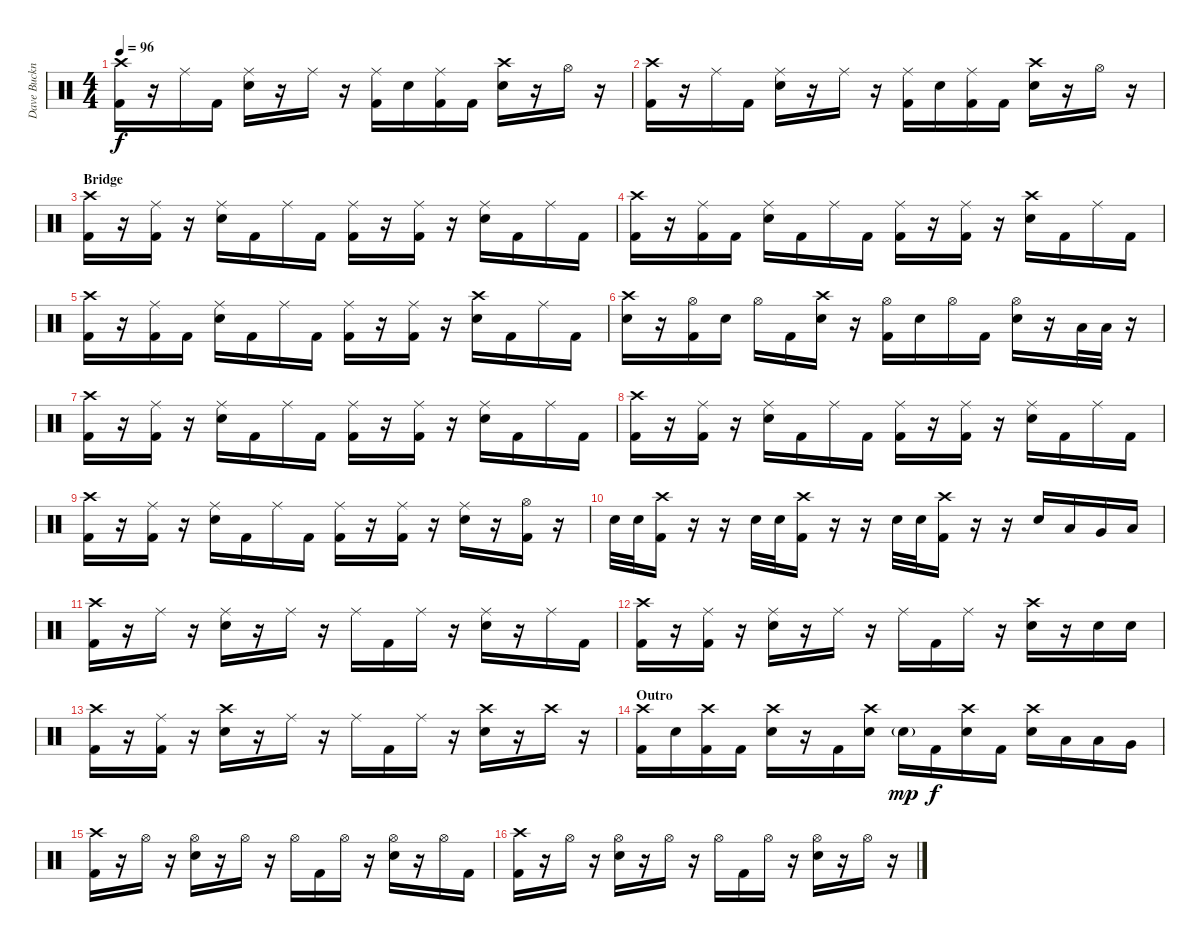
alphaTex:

\track ("Dave Buckner" "Dave Buckn") {instrument percussion}
\staff {score}
\articulation defaults
\ts (4 4)
\tempo 96
\clef neutral
\ks c
("Crash high (hit)" "Kick (hit) 2").16{dy f} r.16 "Ride (middle)".16 "Kick (hit) 2".16 ("Ride (middle)" "Snare (hit) 2").16 r.16 "Ride (middle)".16 r.16 ("Ride (middle)" "Kick (hit) 2").16 "Snare (hit) 2".16 ("Ride (middle)" "Kick (hit) 2").16 "Kick (hit) 2".16 ("Crash high (hit)" "Snare (hit) 2").16 r.16 "Hi-Hat (open)".16 r.16 |
("Crash high (hit)" "Kick (hit) 2").16 r.16 "Ride (middle)".16 "Kick (hit) 2".16 ("Ride (middle)" "Snare (hit) 2").16 r.16 "Ride (middle)".16 r.16 ("Ride (middle)" "Kick (hit) 2").16 "Snare (hit) 2".16 ("Ride (middle)" "Kick (hit) 2").16 "Kick (hit) 2".16 ("Crash high (hit)" "Snare (hit) 2").16 r.16 "Hi-Hat (open)".16 r.16 |
\section ("" "Bridge")
("Crash high (hit)" "Kick (hit) 2").16 r.16 ("Ride (middle)" "Kick (hit) 2").16 r.16 ("Ride (middle)" "Snare (hit) 2").16 "Kick (hit) 2".16 "Ride (middle)".16 "Kick (hit) 2".16 ("Ride (middle)" "Kick (hit) 2").16 r.16 ("Ride (middle)" "Kick (hit) 2").16 r.16 ("Ride (middle)" "Snare (hit) 2").16 "Kick (hit) 2".16 "Ride (middle)".16 "Kick (hit) 2".16 |
("Crash high (hit)" "Kick (hit) 2").16 r.16 ("Ride (middle)" "Kick (hit) 2").16 "Kick (hit) 2".16 ("Ride (middle)" "Snare (hit) 2").16 "Kick (hit) 2".16 "Ride (middle)".16 "Kick (hit) 2".16 ("Ride (middle)" "Kick (hit) 2").16 r.16 ("Ride (middle)" "Kick (hit) 2").16 r.16 ("Crash high (hit)" "Snare (hit) 2").16 "Kick (hit) 2".16 "Ride (middle)".16 "Kick (hit) 2".16 |
("Crash high (hit)" "Kick (hit) 2").16 r.16 ("Ride (middle)" "Kick (hit) 2").16 "Kick (hit) 2".16 ("Ride (middle)" "Snare (hit) 2").16 "Kick (hit) 2".16 "Ride (middle)".16 "Kick (hit) 2".16 ("Ride (middle)" "Kick (hit) 2").16 r.16 ("Ride (middle)" "Kick (hit) 2").16 r.16 ("Crash high (hit)" "Snare (hit) 2").16 "Kick (hit) 2".16 "Ride (middle)".16 "Kick (hit) 2".16 |
("Crash high (hit)" "Snare (hit) 2").16 r.16 ("Hi-Hat (open)" "Kick (hit) 2").16 "Snare (hit) 2".16 "Hi-Hat (open)".16 "Kick (hit) 2".16 ("Crash high (hit)" "Snare (hit) 2").16 r.16 ("Hi-Hat (open)" "Kick (hit) 2").16 "Snare (hit) 2".16 "Hi-Hat (open)".16 "Kick (hit) 2".16 ("Hi-Hat (open)" "Snare (hit) 2").16 r.16 "Low Tom (hit)".32 "Low Tom (hit)".32 r.16 |
("Crash high (hit)" "Kick (hit) 2").16 r.16 ("Ride (middle)" "Kick (hit) 2").16 r.16 ("Ride (middle)" "Snare (hit) 2").16 "Kick (hit) 2".16 "Ride (middle)".16 "Kick (hit) 2".16 ("Ride (middle)" "Kick (hit) 2").16 r.16 ("Ride (middle)" "Kick (hit) 2").16 r.16 ("Ride (middle)" "Snare (hit) 2").16 "Kick (hit) 2".16 "Ride (middle)".16 "Kick (hit) 2".16 |
("Crash high (hit)" "Kick (hit) 2").16 r.16 ("Ride (middle)" "Kick (hit) 2").16 r.16 ("Ride (middle)" "Snare (hit) 2").16 "Kick (hit) 2".16 "Ride (middle)".16 "Kick (hit) 2".16 ("Ride (middle)" "Kick (hit) 2").16 r.16 ("Ride (middle)" "Kick (hit) 2").16 r.16 ("Ride (middle)" "Snare (hit) 2").16 "Kick (hit) 2".16 "Ride (middle)".16 "Kick (hit) 2".16 |
("Crash high (hit)" "Kick (hit) 2").16 r.16 ("Ride (middle)" "Kick (hit) 2").16 r.16 ("Ride (middle)" "Snare (hit) 2").16 "Kick (hit) 2".16 "Ride (middle)".16 "Kick (hit) 2".16 ("Ride (middle)" "Kick (hit) 2").16 r.16 ("Ride (middle)" "Kick (hit) 2").16 r.16 ("Ride (middle)" "Snare (hit) 2").16 r.16 ("Hi-Hat (open)" "Kick (hit) 2").16 r.16 |
"Snare (hit) 2".32 "Snare (hit) 2".32 ("Crash high (hit)" "Kick (hit) 2").16 r.16 r.16 "Snare (hit) 2".32 "Snare (hit) 2".32 ("Crash high (hit)" "Kick (hit) 2").16 r.16 r.16 "Snare (hit) 2".32 "Snare (hit) 2".32 ("Crash high (hit)" "Kick (hit) 2").16 r.16 r.16 "Snare (hit) 2".16 "Low Tom (hit)".16 "Very Low Tom (hit)".16 "Low Floor Tom (hit)".16 |
("Crash high (hit)" "Kick (hit) 2").16 r.16 "Ride (middle)".16 r.16 ("Ride (middle)" "Snare (hit) 2").16 r.16 "Ride (middle)".16 r.16 "Ride (middle)".16 "Kick (hit) 2".16 "Ride (middle)".16 r.16 ("Ride (middle)" "Snare (hit) 2").16 r.16 "Ride (middle)".16 "Kick (hit) 2".16 |
("Crash high (hit)" "Kick (hit) 2").16 r.16 ("Ride (middle)" "Kick (hit) 2").16 r.16 ("Ride (middle)" "Snare (hit) 2").16 r.16 "Ride (middle)".16 r.16 "Ride (middle)".16 "Kick (hit) 2".16 "Ride (middle)".16 r.16 ("Crash high (hit)" "Snare (hit) 2").16 r.16 "Snare (hit) 2".16 "Snare (hit) 2".16 |
("Crash high (hit)" "Kick (hit) 2").16 r.16 ("Ride (middle)" "Kick (hit) 2").16 r.16 ("Crash high (hit)" "Snare (hit) 2").16 r.16 "Ride (middle)".16 r.16 "Ride (middle)".16 "Kick (hit) 2".16 "Ride (middle)".16 r.16 ("Crash high (hit)" "Snare (hit) 2").16 r.16 "Crash high (hit)".16 r.16 |
\section ("" "Outro")
("Crash high (hit)" "Kick (hit) 2").16 "Snare (hit) 2".16 ("Crash high (hit)" "Kick (hit) 2").16 "Kick (hit) 2".16 ("Crash high (hit)" "Snare (hit) 2").16 r.16 "Kick (hit) 2".16 ("Crash high (hit)" "Snare (hit) 2").16 "Snare (hit) 2"{g}.16{dy mp} "Kick (hit) 2".16{dy f} ("Crash high (hit)" "Snare (hit) 2").16 "Kick (hit) 2".16 ("Crash high (hit)" "Snare (hit) 2").16 "Low Floor Tom (hit)".16 "Low Tom (hit)".16 "Very Low Tom (hit)".16 |
("Crash high (hit)" "Kick (hit) 2").16 r.16 "Hi-Hat (open)".16 r.16 ("Hi-Hat (open)" "Snare (hit) 2").16 r.16 "Hi-Hat (open)".16 r.16 "Hi-Hat (open)".16 "Kick (hit) 2".16 "Hi-Hat (open)".16 r.16 ("Hi-Hat (open)" "Snare (hit) 2").16 r.16 "Hi-Hat (open)".16 "Kick (hit) 2".16 |
("Crash high (hit)" "Kick (hit) 2").16 r.16 "Hi-Hat (open)".16 r.16 ("Hi-Hat (open)" "Snare (hit) 2").16 r.16 "Hi-Hat (open)".16 r.16 "Hi-Hat (open)".16 "Kick (hit) 2".16 "Hi-Hat (open)".16 r.16 ("Hi-Hat (open)" "Snare (hit) 2").16 r.16 "Hi-Hat (open)".16 r.16
